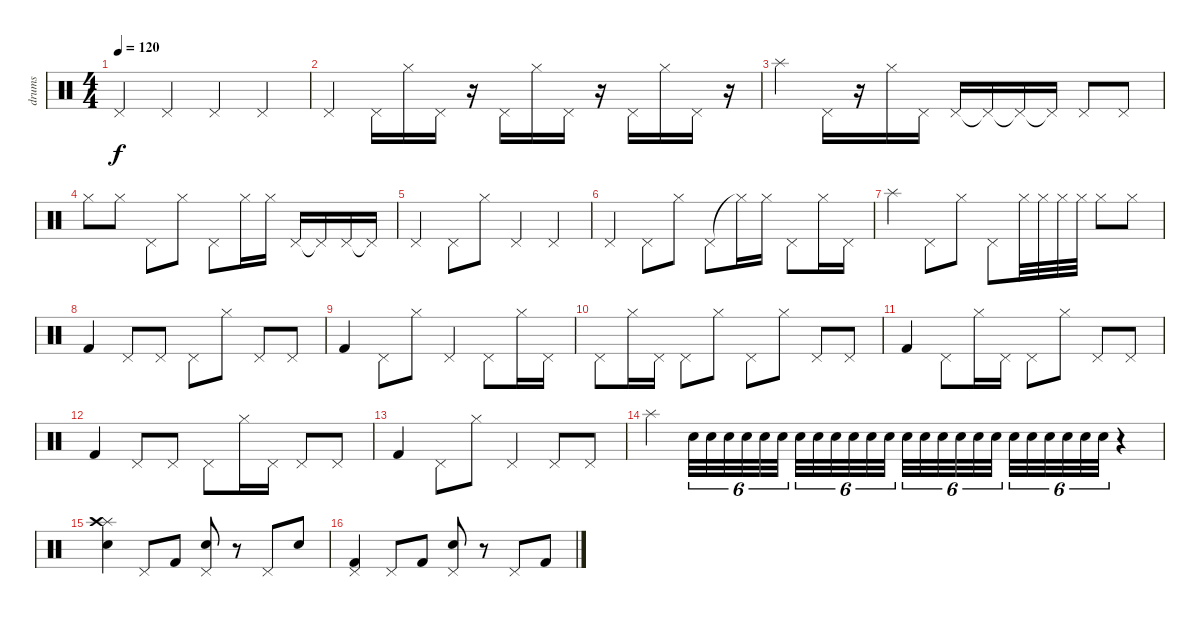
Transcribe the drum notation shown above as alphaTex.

\track ("drums" "drums") {instrument percussion}
\staff {score}
\articulation defaults
\ts (4 4)
\tempo 120
\clef neutral
\ks c "Pedal Hi-Hat (hit)".4{dy f} "Pedal Hi-Hat (hit)".4 "Pedal Hi-Hat (hit)".4 "Pedal Hi-Hat (hit)".4
|
"Pedal Hi-Hat (hit)".4 "Pedal Hi-Hat (hit)".16 "Hi-Hat (closed)".16 "Pedal Hi-Hat (hit)".16 r.16 "Pedal Hi-Hat (hit)".16 "Hi-Hat (closed)".16 "Pedal Hi-Hat (hit)".16 r.16 "Pedal Hi-Hat (hit)".16 "Hi-Hat (closed)".16 "Pedal Hi-Hat (hit)".16 r.16 |
"Splash (hit)".4 "Pedal Hi-Hat (hit)".16 r.16 "Hi-Hat (closed)".16 "Pedal Hi-Hat (hit)".16 "Pedal Hi-Hat (hit)".16 "Pedal Hi-Hat (hit)"{t}.16 "Pedal Hi-Hat (hit)"{t}.16 "Pedal Hi-Hat (hit)"{t}.16 "Pedal Hi-Hat (hit)".8 "Pedal Hi-Hat (hit)".8 |
"Hi-Hat (closed)".8 "Hi-Hat (closed)".8 "Pedal Hi-Hat (hit)".8 "Hi-Hat (closed)".8 "Pedal Hi-Hat (hit)".8 "Hi-Hat (closed)".16 "Hi-Hat (closed)".16 "Pedal Hi-Hat (hit)".16 "Pedal Hi-Hat (hit)"{t}.16 "Pedal Hi-Hat (hit)".16 "Pedal Hi-Hat (hit)"{t}.16 |
"Pedal Hi-Hat (hit)".4 "Pedal Hi-Hat (hit)".8 "Hi-Hat (closed)".8 "Pedal Hi-Hat (hit)".4 "Pedal Hi-Hat (hit)".4 |
"Pedal Hi-Hat (hit)".4 "Pedal Hi-Hat (hit)".8 "Hi-Hat (closed)".8 "Pedal Hi-Hat (hit)".8 "Hi-Hat (closed)"{t}.16 "Hi-Hat (closed)".16 "Pedal Hi-Hat (hit)".8 "Hi-Hat (closed)".16 "Pedal Hi-Hat (hit)".16 |
"Splash (hit)".4 "Pedal Hi-Hat (hit)".8 "Hi-Hat (closed)".8 "Pedal Hi-Hat (hit)".8 "Hi-Hat (closed)".32{volume 9} "Hi-Hat (closed)".32 "Hi-Hat (closed)".32 "Hi-Hat (closed)".32 "Hi-Hat (closed)".8 "Hi-Hat (closed)".8 |
"Kick (hit) 2".4{volume 16} "Pedal Hi-Hat (hit)".8 "Pedal Hi-Hat (hit)".8 "Pedal Hi-Hat (hit)".8 "Hi-Hat (closed)".8 "Pedal Hi-Hat (hit)".8 "Pedal Hi-Hat (hit)".8 |
"Kick (hit) 2".4 "Pedal Hi-Hat (hit)".8 "Hi-Hat (closed)".8 "Pedal Hi-Hat (hit)".4 "Pedal Hi-Hat (hit)".8 "Hi-Hat (closed)".16 "Pedal Hi-Hat (hit)".16 |
"Pedal Hi-Hat (hit)".8 "Hi-Hat (closed)".16 "Pedal Hi-Hat (hit)".16 "Pedal Hi-Hat (hit)".8 "Hi-Hat (closed)".8 "Pedal Hi-Hat (hit)".8 "Hi-Hat (closed)".8 "Pedal Hi-Hat (hit)".8 "Pedal Hi-Hat (hit)".8 |
"Kick (hit) 2".4 "Pedal Hi-Hat (hit)".8 "Hi-Hat (closed)".16 "Pedal Hi-Hat (hit)".16 "Pedal Hi-Hat (hit)".8 "Hi-Hat (closed)".8 "Pedal Hi-Hat (hit)".8 "Pedal Hi-Hat (hit)".8 |
"Kick (hit) 2".4 "Pedal Hi-Hat (hit)".8 "Pedal Hi-Hat (hit)".8 "Pedal Hi-Hat (hit)".8 "Hi-Hat (closed)".16 "Pedal Hi-Hat (hit)".16 "Pedal Hi-Hat (hit)".8 "Pedal Hi-Hat (hit)".8 |
"Kick (hit) 2".4 "Pedal Hi-Hat (hit)".8 "Hi-Hat (closed)".8 "Pedal Hi-Hat (hit)".4 "Pedal Hi-Hat (hit)".8 "Pedal Hi-Hat (hit)".8 |
"Splash (hit)".4 "Snare (hit) 2".32{tu (6 4) volume 4} "Snare (hit) 2".32{tu (6 4)} "Snare (hit) 2".32{tu (6 4)} "Snare (hit) 2".32{tu (6 4)} "Snare (hit) 2".32{tu (6 4) volume 7} "Snare (hit) 2".32{tu (6 4)} "Snare (hit) 2".32{tu (6 4)} "Snare (hit) 2".32{tu (6 4)} "Snare (hit) 2".32{tu (6 4) volume 10} "Snare (hit) 2".32{tu (6 4)} "Snare (hit) 2".32{tu (6 4)} "Snare (hit) 2".32{tu (6 4)} "Snare (hit) 2".32{tu (6 4) volume 16} "Snare (hit) 2".32{tu (6 4)} "Snare (hit) 2".32{tu (6 4)} "Snare (hit) 2".32{tu (6 4)} "Snare (hit) 2".32{tu (6 4)} "Snare (hit) 2".32{tu (6 4)} "Snare (hit) 2".32{tu (6 4) volume 11} "Snare (hit) 2".32{tu (6 4)} "Snare (hit) 2".32{tu (6 4)} "Snare (hit) 2".32{tu (6 4)} "Snare (hit) 2".32{tu (6 4) volume 6} "Snare (hit) 2".32{tu (6 4)} r.4 |
("Splash (hit)" "Crash high (hit)" "Snare (hit) 2").4{volume 16} "Pedal Hi-Hat (hit)".8 "Kick (hit) 2".8 ("Snare (hit) 2" "Pedal Hi-Hat (hit)").8 r.8 "Pedal Hi-Hat (hit)".8 "Snare (hit) 2".8 |
("Kick (hit) 2" "Pedal Hi-Hat (hit)").4 "Pedal Hi-Hat (hit)".8 "Kick (hit) 2".8 ("Snare (hit) 2" "Pedal Hi-Hat (hit)").8 r.8 "Pedal Hi-Hat (hit)".8 "Kick (hit) 2".8
